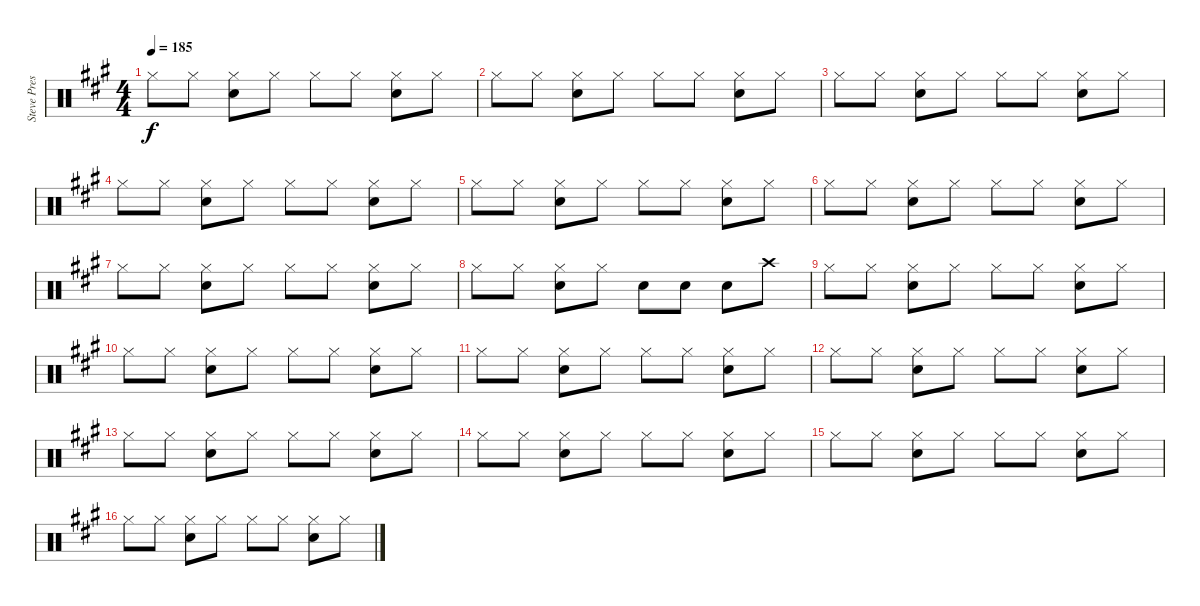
\track ("Steve Preswhich" "Steve Pres") {instrument percussion}
\staff {score}
\articulation defaults
\ts (4 4)
\tempo 185
\clef neutral
\ks a "Hi-Hat (closed)".8{dy f} "Hi-Hat (closed)".8
("Hi-Hat (closed)" "Electric Snare (hit)").8 "Hi-Hat (closed)".8 "Hi-Hat (closed)".8 "Hi-Hat (closed)".8 ("Hi-Hat (closed)" "Electric Snare (hit)").8 "Hi-Hat (closed)".8 |
"Hi-Hat (closed)".8 "Hi-Hat (closed)".8 ("Hi-Hat (closed)" "Electric Snare (hit)").8 "Hi-Hat (closed)".8 "Hi-Hat (closed)".8 "Hi-Hat (closed)".8 ("Hi-Hat (closed)" "Electric Snare (hit)").8 "Hi-Hat (closed)".8 |
"Hi-Hat (closed)".8 "Hi-Hat (closed)".8 ("Hi-Hat (closed)" "Electric Snare (hit)").8 "Hi-Hat (closed)".8 "Hi-Hat (closed)".8 "Hi-Hat (closed)".8 ("Hi-Hat (closed)" "Electric Snare (hit)").8 "Hi-Hat (closed)".8 |
"Hi-Hat (closed)".8 "Hi-Hat (closed)".8 ("Hi-Hat (closed)" "Electric Snare (hit)").8 "Hi-Hat (closed)".8 "Hi-Hat (closed)".8 "Hi-Hat (closed)".8 ("Hi-Hat (closed)" "Electric Snare (hit)").8 "Hi-Hat (closed)".8 |
"Hi-Hat (closed)".8 "Hi-Hat (closed)".8 ("Hi-Hat (closed)" "Electric Snare (hit)").8 "Hi-Hat (closed)".8 "Hi-Hat (closed)".8 "Hi-Hat (closed)".8 ("Hi-Hat (closed)" "Electric Snare (hit)").8 "Hi-Hat (closed)".8 |
"Hi-Hat (closed)".8 "Hi-Hat (closed)".8 ("Hi-Hat (closed)" "Electric Snare (hit)").8 "Hi-Hat (closed)".8 "Hi-Hat (closed)".8 "Hi-Hat (closed)".8 ("Hi-Hat (closed)" "Electric Snare (hit)").8 "Hi-Hat (closed)".8 |
"Hi-Hat (closed)".8 "Hi-Hat (closed)".8 ("Hi-Hat (closed)" "Electric Snare (hit)").8 "Hi-Hat (closed)".8 "Hi-Hat (closed)".8 "Hi-Hat (closed)".8 ("Hi-Hat (closed)" "Electric Snare (hit)").8 "Hi-Hat (closed)".8 |
"Hi-Hat (closed)".8 "Hi-Hat (closed)".8 ("Hi-Hat (closed)" "Electric Snare (hit)").8 "Hi-Hat (closed)".8 "Snare (hit) 2".8 "Snare (hit) 2".8 "Snare (hit) 2".8 "Crash high (hit)".8 |
"Hi-Hat (closed)".8 "Hi-Hat (closed)".8 ("Hi-Hat (closed)" "Electric Snare (hit)").8 "Hi-Hat (closed)".8 "Hi-Hat (closed)".8 "Hi-Hat (closed)".8 ("Hi-Hat (closed)" "Electric Snare (hit)").8 "Hi-Hat (closed)".8 |
"Hi-Hat (closed)".8 "Hi-Hat (closed)".8 ("Hi-Hat (closed)" "Electric Snare (hit)").8 "Hi-Hat (closed)".8 "Hi-Hat (closed)".8 "Hi-Hat (closed)".8 ("Hi-Hat (closed)" "Electric Snare (hit)").8 "Hi-Hat (closed)".8 |
"Hi-Hat (closed)".8 "Hi-Hat (closed)".8 ("Hi-Hat (closed)" "Electric Snare (hit)").8 "Hi-Hat (closed)".8 "Hi-Hat (closed)".8 "Hi-Hat (closed)".8 ("Hi-Hat (closed)" "Electric Snare (hit)").8 "Hi-Hat (closed)".8 |
"Hi-Hat (closed)".8 "Hi-Hat (closed)".8 ("Hi-Hat (closed)" "Electric Snare (hit)").8 "Hi-Hat (closed)".8 "Hi-Hat (closed)".8 "Hi-Hat (closed)".8 ("Hi-Hat (closed)" "Electric Snare (hit)").8 "Hi-Hat (closed)".8 |
"Hi-Hat (closed)".8 "Hi-Hat (closed)".8 ("Hi-Hat (closed)" "Electric Snare (hit)").8 "Hi-Hat (closed)".8 "Hi-Hat (closed)".8 "Hi-Hat (closed)".8 ("Hi-Hat (closed)" "Electric Snare (hit)").8 "Hi-Hat (closed)".8 |
"Hi-Hat (closed)".8 "Hi-Hat (closed)".8 ("Hi-Hat (closed)" "Electric Snare (hit)").8 "Hi-Hat (closed)".8 "Hi-Hat (closed)".8 "Hi-Hat (closed)".8 ("Hi-Hat (closed)" "Electric Snare (hit)").8 "Hi-Hat (closed)".8 |
"Hi-Hat (closed)".8 "Hi-Hat (closed)".8 ("Hi-Hat (closed)" "Electric Snare (hit)").8 "Hi-Hat (closed)".8 "Hi-Hat (closed)".8 "Hi-Hat (closed)".8 ("Hi-Hat (closed)" "Electric Snare (hit)").8 "Hi-Hat (closed)".8 |
"Hi-Hat (closed)".8 "Hi-Hat (closed)".8 ("Hi-Hat (closed)" "Electric Snare (hit)").8 "Hi-Hat (closed)".8 "Hi-Hat (closed)".8 "Hi-Hat (closed)".8 ("Hi-Hat (closed)" "Electric Snare (hit)").8 "Hi-Hat (closed)".8
